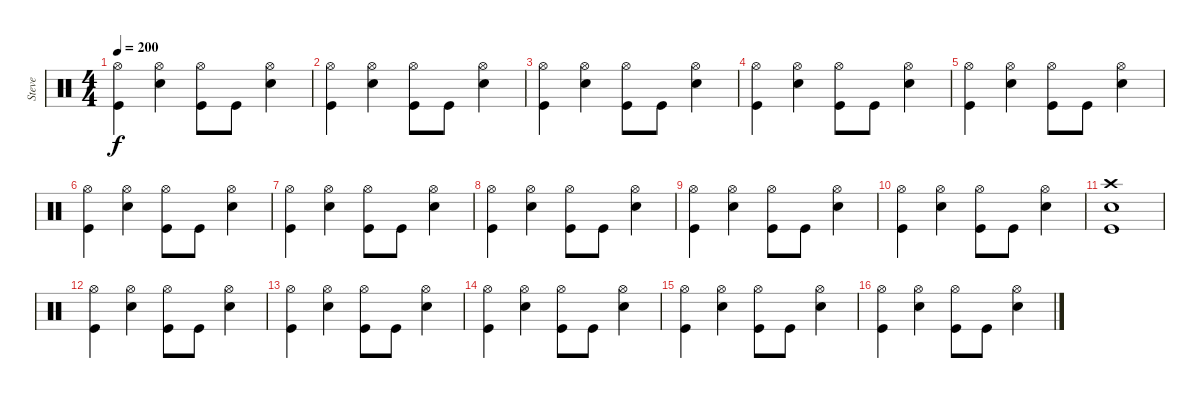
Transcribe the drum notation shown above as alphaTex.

\track ("Steve" "Steve") {instrument percussion}
\staff {score}
\articulation defaults
\ts (4 4)
\tempo 200
\clef neutral
\ks c
("Hi-Hat (open)" "Kick (hit)").4{dy f} ("Hi-Hat (open)" "Snare (hit) 2").4 ("Hi-Hat (open)" "Kick (hit)").8 "Kick (hit)".8 ("Hi-Hat (open)" "Snare (hit) 2").4 |
("Hi-Hat (open)" "Kick (hit)").4 ("Hi-Hat (open)" "Snare (hit) 2").4 ("Hi-Hat (open)" "Kick (hit)").8 "Kick (hit)".8 ("Hi-Hat (open)" "Snare (hit) 2").4 |
("Hi-Hat (open)" "Kick (hit)").4 ("Hi-Hat (open)" "Snare (hit) 2").4 ("Hi-Hat (open)" "Kick (hit)").8 "Kick (hit)".8 ("Hi-Hat (open)" "Snare (hit) 2").4 |
("Hi-Hat (open)" "Kick (hit)").4 ("Hi-Hat (open)" "Snare (hit) 2").4 ("Hi-Hat (open)" "Kick (hit)").8 "Kick (hit)".8 ("Hi-Hat (open)" "Snare (hit) 2").4 |
("Hi-Hat (open)" "Kick (hit)").4 ("Hi-Hat (open)" "Snare (hit) 2").4 ("Hi-Hat (open)" "Kick (hit)").8 "Kick (hit)".8 ("Hi-Hat (open)" "Snare (hit) 2").4 |
("Hi-Hat (open)" "Kick (hit)").4 ("Hi-Hat (open)" "Snare (hit) 2").4 ("Hi-Hat (open)" "Kick (hit)").8 "Kick (hit)".8 ("Hi-Hat (open)" "Snare (hit) 2").4 |
("Hi-Hat (open)" "Kick (hit)").4 ("Hi-Hat (open)" "Snare (hit) 2").4 ("Hi-Hat (open)" "Kick (hit)").8 "Kick (hit)".8 ("Hi-Hat (open)" "Snare (hit) 2").4 |
("Hi-Hat (open)" "Kick (hit)").4 ("Hi-Hat (open)" "Snare (hit) 2").4 ("Hi-Hat (open)" "Kick (hit)").8 "Kick (hit)".8 ("Hi-Hat (open)" "Snare (hit) 2").4 |
("Hi-Hat (open)" "Kick (hit)").4 ("Hi-Hat (open)" "Snare (hit) 2").4 ("Hi-Hat (open)" "Kick (hit)").8 "Kick (hit)".8 ("Hi-Hat (open)" "Snare (hit) 2").4 |
("Hi-Hat (open)" "Kick (hit)").4 ("Hi-Hat (open)" "Snare (hit) 2").4 ("Hi-Hat (open)" "Kick (hit)").8 "Kick (hit)".8 ("Hi-Hat (open)" "Snare (hit) 2").4 |
("Crash high (hit)" "Snare (hit) 2" "Kick (hit)").1 |
("Hi-Hat (open)" "Kick (hit)").4 ("Hi-Hat (open)" "Snare (hit) 2").4 ("Hi-Hat (open)" "Kick (hit)").8 "Kick (hit)".8 ("Hi-Hat (open)" "Snare (hit) 2").4 |
("Hi-Hat (open)" "Kick (hit)").4 ("Hi-Hat (open)" "Snare (hit) 2").4 ("Hi-Hat (open)" "Kick (hit)").8 "Kick (hit)".8 ("Hi-Hat (open)" "Snare (hit) 2").4 |
("Hi-Hat (open)" "Kick (hit)").4 ("Hi-Hat (open)" "Snare (hit) 2").4 ("Hi-Hat (open)" "Kick (hit)").8 "Kick (hit)".8 ("Hi-Hat (open)" "Snare (hit) 2").4 |
("Hi-Hat (open)" "Kick (hit)").4 ("Hi-Hat (open)" "Snare (hit) 2").4 ("Hi-Hat (open)" "Kick (hit)").8 "Kick (hit)".8 ("Hi-Hat (open)" "Snare (hit) 2").4 |
("Hi-Hat (open)" "Kick (hit)").4 ("Hi-Hat (open)" "Snare (hit) 2").4 ("Hi-Hat (open)" "Kick (hit)").8 "Kick (hit)".8 ("Hi-Hat (open)" "Snare (hit) 2").4
